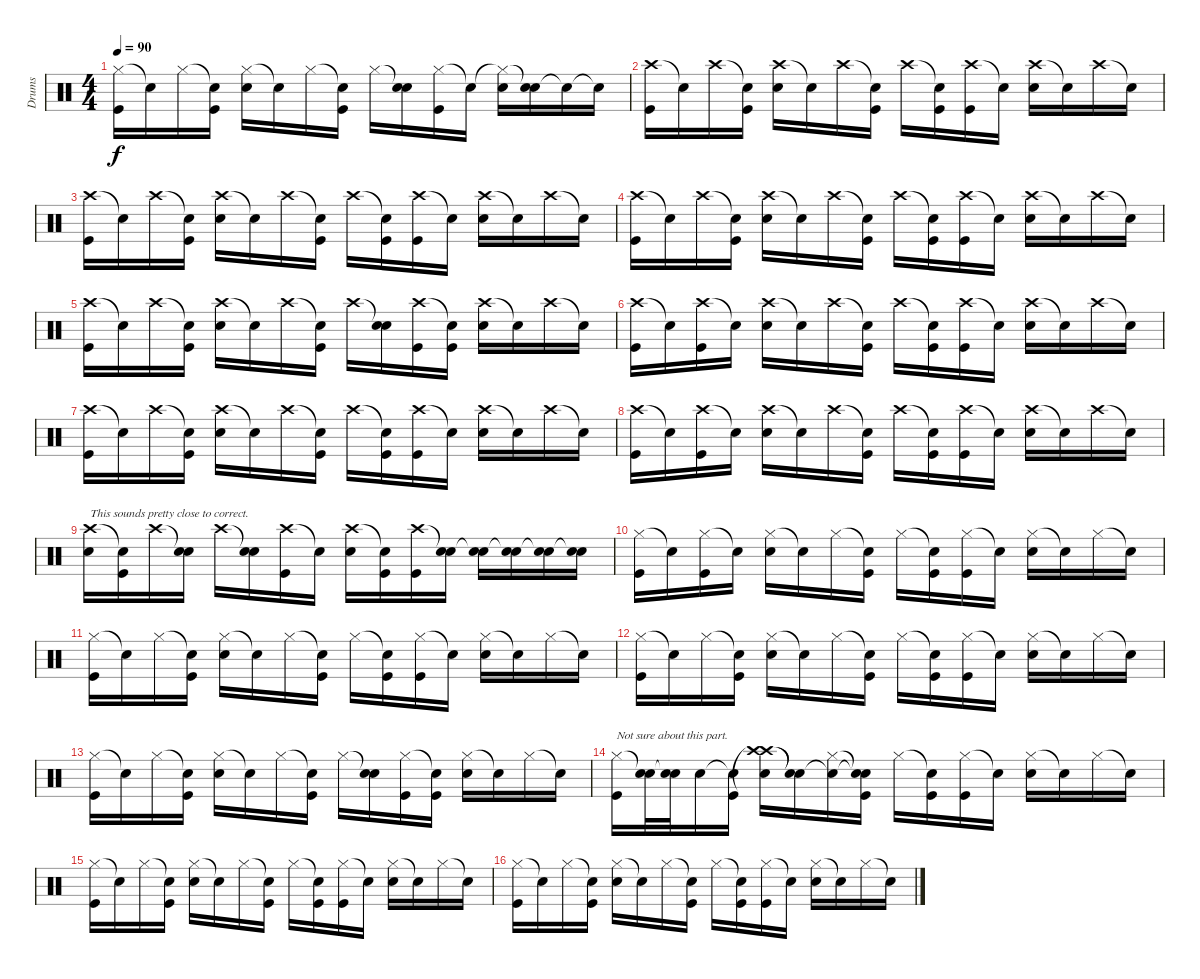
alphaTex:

\track ("Drums" "Drums") {instrument percussion}
\staff {score}
\articulation defaults
\ts (4 4)
\tempo 90
\clef neutral
\ks c
("Hi-Hat (closed)" "Kick (hit)").16{dy f} "Snare (hit)"{t}.16 "Hi-Hat (closed)".16 ("Snare (hit)"{t} "Kick (hit)").16 ("Hi-Hat (closed)" "Electric Snare (hit)").16 "Snare (hit)"{t}.16 "Hi-Hat (closed)".16 ("Snare (hit)"{t} "Kick (hit)").16 "Hi-Hat (closed)".16 ("Snare (hit)"{t} "Electric Snare (hit)").16 ("Hi-Hat (closed)" "Kick (hit)").16 "Snare (hit)"{t}.16 ("Hi-Hat (closed)"{t} "Electric Snare (hit)").16 ("Snare (hit)"{t} "Electric Snare (hit)").16 "Snare (hit)"{t}.16 "Snare (hit)"{t}.16 |
("Crash high (hit)" "Kick (hit)").16 "Snare (hit)"{t}.16 "Crash high (hit)".16 ("Snare (hit)"{t} "Kick (hit)").16 ("Crash high (hit)" "Electric Snare (hit)").16 "Snare (hit)"{t}.16 "Crash high (hit)".16 ("Snare (hit)"{t} "Kick (hit)").16 "Crash high (hit)".16 ("Snare (hit)"{t} "Kick (hit)").16 ("Crash high (hit)" "Kick (hit)").16 "Snare (hit)"{t}.16 ("Crash high (hit)" "Electric Snare (hit)").16 "Snare (hit)"{t}.16 "Crash high (hit)".16 "Snare (hit)"{t}.16 |
("Crash high (hit)" "Kick (hit)").16 "Snare (hit)"{t}.16 "Crash high (hit)".16 ("Snare (hit)"{t} "Kick (hit)").16 ("Crash high (hit)" "Electric Snare (hit)").16 "Snare (hit)"{t}.16 "Crash high (hit)".16 ("Snare (hit)"{t} "Kick (hit)").16 "Crash high (hit)".16 ("Snare (hit)"{t} "Kick (hit)").16 ("Crash high (hit)" "Kick (hit)").16 "Snare (hit)"{t}.16 ("Crash high (hit)" "Electric Snare (hit)").16 "Snare (hit)"{t}.16 "Crash high (hit)".16 "Snare (hit)"{t}.16 |
("Crash high (hit)" "Kick (hit)").16 "Snare (hit)"{t}.16 "Crash high (hit)".16 ("Snare (hit)"{t} "Kick (hit)").16 ("Crash high (hit)" "Electric Snare (hit)").16 "Snare (hit)"{t}.16 "Crash high (hit)".16 ("Snare (hit)"{t} "Kick (hit)").16 "Crash high (hit)".16 ("Snare (hit)"{t} "Kick (hit)").16 ("Crash high (hit)" "Kick (hit)").16 "Snare (hit)"{t}.16 ("Crash high (hit)" "Electric Snare (hit)").16 "Snare (hit)"{t}.16 "Crash high (hit)".16 "Snare (hit)"{t}.16 |
("Crash high (hit)" "Kick (hit)").16 "Snare (hit)"{t}.16 "Crash high (hit)".16 ("Snare (hit)"{t} "Kick (hit)").16 ("Crash high (hit)" "Electric Snare (hit)").16 "Snare (hit)"{t}.16 "Crash high (hit)".16 ("Snare (hit)"{t} "Kick (hit)").16 "Crash high (hit)".16 ("Snare (hit)"{t} "Electric Snare (hit)").16 ("Crash high (hit)" "Kick (hit)").16 ("Snare (hit)"{t} "Kick (hit)").16 ("Crash high (hit)" "Electric Snare (hit)").16 "Snare (hit)"{t}.16 "Crash high (hit)".16 "Snare (hit)"{t}.16 |
("Crash high (hit)" "Kick (hit)").16 "Snare (hit)"{t}.16 ("Crash high (hit)" "Kick (hit)").16 "Snare (hit)"{t}.16 ("Crash high (hit)" "Electric Snare (hit)").16 "Snare (hit)"{t}.16 "Crash high (hit)".16 ("Snare (hit)"{t} "Kick (hit)").16 "Crash high (hit)".16 ("Snare (hit)"{t} "Kick (hit)").16 ("Crash high (hit)" "Kick (hit)").16 "Snare (hit)"{t}.16 ("Crash high (hit)" "Electric Snare (hit)").16 "Snare (hit)"{t}.16 "Crash high (hit)".16 "Snare (hit)"{t}.16 |
("Crash high (hit)" "Kick (hit)").16 "Snare (hit)"{t}.16 "Crash high (hit)".16 ("Snare (hit)"{t} "Kick (hit)").16 ("Crash high (hit)" "Electric Snare (hit)").16 "Snare (hit)"{t}.16 "Crash high (hit)".16 ("Snare (hit)"{t} "Kick (hit)").16 "Crash high (hit)".16 ("Snare (hit)"{t} "Kick (hit)").16 ("Crash high (hit)" "Kick (hit)").16 "Snare (hit)"{t}.16 ("Crash high (hit)" "Electric Snare (hit)").16 "Snare (hit)"{t}.16 "Crash high (hit)".16 "Snare (hit)"{t}.16 |
("Crash high (hit)" "Kick (hit)").16 "Snare (hit)"{t}.16 ("Crash high (hit)" "Kick (hit)").16 "Snare (hit)"{t}.16 ("Crash high (hit)" "Electric Snare (hit)").16 "Snare (hit)"{t}.16 "Crash high (hit)".16 ("Snare (hit)"{t} "Kick (hit)").16 "Crash high (hit)".16 ("Snare (hit)"{t} "Kick (hit)").16 ("Crash high (hit)" "Kick (hit)").16 "Snare (hit)"{t}.16 ("Crash high (hit)" "Electric Snare (hit)").16 "Snare (hit)"{t}.16 "Crash high (hit)".16 "Snare (hit)"{t}.16 |
("Crash high (hit)" "Electric Snare (hit)").16{txt "This sounds pretty close to correct."} ("Snare (hit)"{t} "Kick (hit)").16 "Crash high (hit)".16 ("Snare (hit)"{t} "Electric Snare (hit)").16 "Crash high (hit)".16 ("Snare (hit)"{t} "Electric Snare (hit)").16 ("Crash high (hit)" "Kick (hit)").16 "Snare (hit)"{t}.16 ("Crash high (hit)" "Electric Snare (hit)").16 ("Snare (hit)"{t} "Kick (hit)").16 ("Crash high (hit)" "Kick (hit)").16 ("Snare (hit)"{t} "Electric Snare (hit)").16 ("Snare (hit)"{t} "Electric Snare (hit)").16 ("Snare (hit)"{t} "Electric Snare (hit)").16 ("Snare (hit)"{t} "Electric Snare (hit)").16 ("Snare (hit)"{t} "Electric Snare (hit)").16 |
("Hi-Hat (closed)" "Kick (hit)").16 "Snare (hit)"{t}.16 ("Hi-Hat (closed)" "Kick (hit)").16 "Snare (hit)"{t}.16 ("Hi-Hat (closed)" "Electric Snare (hit)").16 "Snare (hit)"{t}.16 "Hi-Hat (closed)".16 ("Snare (hit)"{t} "Kick (hit)").16 "Hi-Hat (closed)".16 ("Snare (hit)"{t} "Kick (hit)").16 ("Hi-Hat (closed)" "Kick (hit)").16 "Snare (hit)"{t}.16 ("Hi-Hat (closed)" "Electric Snare (hit)").16 "Snare (hit)"{t}.16 "Hi-Hat (closed)".16 "Snare (hit)"{t}.16 |
("Hi-Hat (closed)" "Kick (hit)").16 "Snare (hit)"{t}.16 "Hi-Hat (closed)".16 ("Snare (hit)"{t} "Kick (hit)").16 ("Hi-Hat (closed)" "Electric Snare (hit)").16 "Snare (hit)"{t}.16 "Hi-Hat (closed)".16 ("Snare (hit)"{t} "Kick (hit)").16 "Hi-Hat (closed)".16 ("Snare (hit)"{t} "Kick (hit)").16 ("Hi-Hat (closed)" "Kick (hit)").16 "Snare (hit)"{t}.16 ("Hi-Hat (closed)" "Electric Snare (hit)").16 "Snare (hit)"{t}.16 "Hi-Hat (closed)".16 "Snare (hit)"{t}.16 |
("Hi-Hat (closed)" "Kick (hit)").16 "Snare (hit)"{t}.16 "Hi-Hat (closed)".16 ("Snare (hit)"{t} "Kick (hit)").16 ("Hi-Hat (closed)" "Electric Snare (hit)").16 "Snare (hit)"{t}.16 "Hi-Hat (closed)".16 ("Snare (hit)"{t} "Kick (hit)").16 "Hi-Hat (closed)".16 ("Snare (hit)"{t} "Kick (hit)").16 ("Hi-Hat (closed)" "Kick (hit)").16 "Snare (hit)"{t}.16 ("Hi-Hat (closed)" "Electric Snare (hit)").16 "Snare (hit)"{t}.16 "Hi-Hat (closed)".16 "Snare (hit)"{t}.16 |
("Hi-Hat (closed)" "Kick (hit)").16 "Snare (hit)"{t}.16 "Hi-Hat (closed)".16 ("Snare (hit)"{t} "Kick (hit)").16 ("Hi-Hat (closed)" "Electric Snare (hit)").16 "Snare (hit)"{t}.16 "Hi-Hat (closed)".16 ("Snare (hit)"{t} "Kick (hit)").16 "Hi-Hat (closed)".16 ("Snare (hit)"{t} "Electric Snare (hit)").16 ("Hi-Hat (closed)" "Kick (hit)").16 ("Snare (hit)"{t} "Kick (hit)").16 ("Hi-Hat (closed)" "Electric Snare (hit)").16 "Snare (hit)"{t}.16 "Hi-Hat (closed)".16 "Snare (hit)"{t}.16 |
("Hi-Hat (closed)" "Kick (hit)").16{txt "Not sure about this part."} ("Snare (hit)"{t} "Electric Snare (hit)").32 ("Snare (hit)"{t} "Electric Snare (hit)").32 "Electric Snare (hit)".16 ("Snare (hit)"{t} "Kick (hit)").16 ("Crash high (hit)" "Crash high (hit)"{t} "Electric Snare (hit)").16 ("Snare (hit)"{t} "Snare (hit)"{t}).16 ("Snare (hit)"{t} "Hi-Hat (closed)").16 ("Snare (hit)"{t} "Snare (hit)"{t} "Kick (hit)").16 "Hi-Hat (closed)".16 ("Snare (hit)"{t} "Kick (hit)").16 ("Hi-Hat (closed)" "Kick (hit)").16 "Snare (hit)"{t}.16 ("Hi-Hat (closed)" "Electric Snare (hit)").16 "Snare (hit)"{t}.16 "Hi-Hat (closed)".16 "Snare (hit)"{t}.16 |
("Hi-Hat (closed)" "Kick (hit)").16 "Snare (hit)"{t}.16 "Hi-Hat (closed)".16 ("Snare (hit)"{t} "Kick (hit)").16 ("Hi-Hat (closed)" "Electric Snare (hit)").16 "Snare (hit)"{t}.16 "Hi-Hat (closed)".16 ("Snare (hit)"{t} "Kick (hit)").16 "Hi-Hat (closed)".16 ("Snare (hit)"{t} "Kick (hit)").16 ("Hi-Hat (closed)" "Kick (hit)").16 "Snare (hit)"{t}.16 ("Hi-Hat (closed)" "Electric Snare (hit)").16 "Snare (hit)"{t}.16 "Hi-Hat (closed)".16 "Snare (hit)"{t}.16 |
("Hi-Hat (closed)" "Kick (hit)").16 "Snare (hit)"{t}.16 "Hi-Hat (closed)".16 ("Snare (hit)"{t} "Kick (hit)").16 ("Hi-Hat (closed)" "Electric Snare (hit)").16 "Snare (hit)"{t}.16 "Hi-Hat (closed)".16 ("Snare (hit)"{t} "Kick (hit)").16 "Hi-Hat (closed)".16 ("Snare (hit)"{t} "Kick (hit)").16 ("Hi-Hat (closed)" "Kick (hit)").16 "Snare (hit)"{t}.16 ("Hi-Hat (closed)" "Electric Snare (hit)").16 "Snare (hit)"{t}.16 "Hi-Hat (closed)".16 "Snare (hit)"{t}.16
